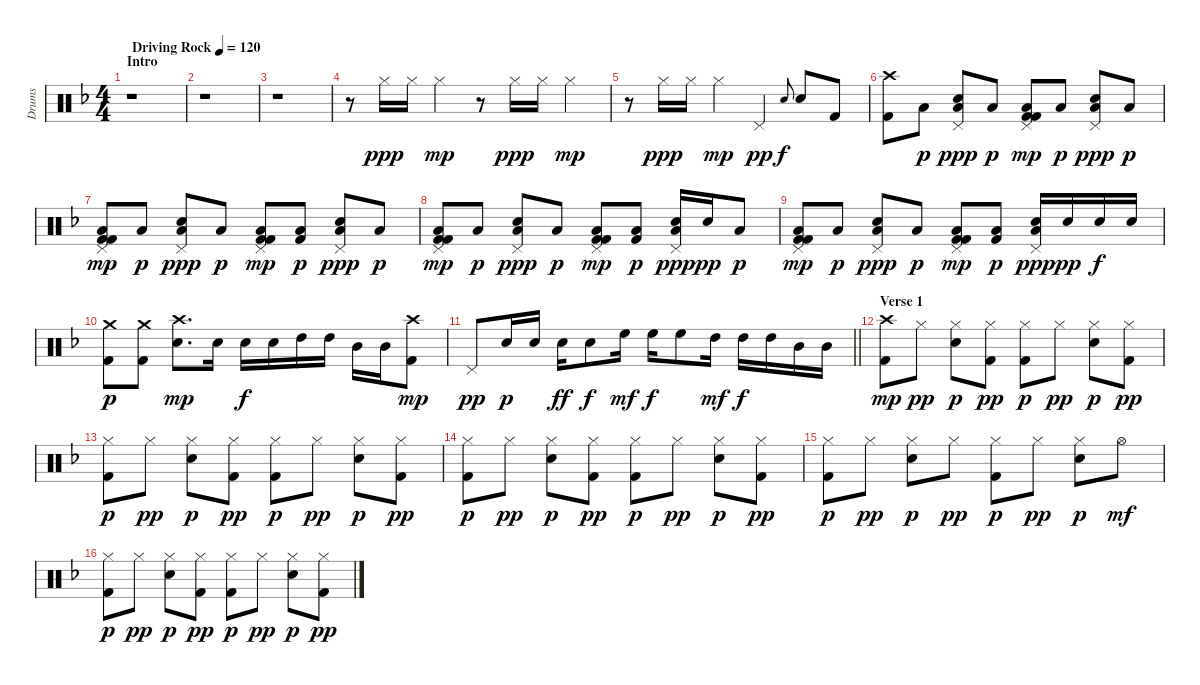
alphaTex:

\track ("Drums" "Drums") {instrument percussion}
\staff {score}
\articulation defaults
\ts (4 4)
\section ("" "Intro")
\tempo (120 "Driving Rock")
\clef neutral
\ks dminor
r.1{dy ppp} |
r.1 |
r.1 |
r.8 "Hi-Hat (closed)".16 "Hi-Hat (closed)".16 "Hi-Hat (closed)".4{dy mp} r.8 "Hi-Hat (closed)".16{dy ppp} "Hi-Hat (closed)".16 "Hi-Hat (closed)".4{dy mp} |
r.8 "Hi-Hat (closed)".16{dy ppp} "Hi-Hat (closed)".16 "Hi-Hat (closed)".4{dy mp} "Pedal Hi-Hat (hit)".4{dy pp} "Electric Snare (hit)".8{gr onbeat dy f} "Electric Snare (hit)".8 "Kick (hit) 2".8 |
("Kick (hit) 2" "Crash high (hit)").8 "Low Tom (hit)".8{dy p} ("Low Tom (hit)" "Electric Snare (hit)" "Pedal Hi-Hat (hit)").8{dy ppp} "Low Tom (hit)".8{dy p} ("Low Tom (hit)" "Kick (hit) 2" "Pedal Hi-Hat (hit)" "Kick (hit) 2").8{dy mp} "Low Tom (hit)".8{dy p} ("Low Tom (hit)" "Electric Snare (hit)" "Pedal Hi-Hat (hit)").8{dy ppp} "Low Tom (hit)".8{dy p} |
("Low Tom (hit)" "Kick (hit) 2" "Pedal Hi-Hat (hit)" "Kick (hit) 2").8{dy mp} "Low Tom (hit)".8{dy p} ("Low Tom (hit)" "Electric Snare (hit)" "Pedal Hi-Hat (hit)").8{dy ppp} "Low Tom (hit)".8{dy p} ("Low Tom (hit)" "Kick (hit) 2" "Pedal Hi-Hat (hit)" "Kick (hit) 2").8{dy mp} ("Low Tom (hit)" "Kick (hit) 2").8{dy p} ("Low Tom (hit)" "Electric Snare (hit)" "Pedal Hi-Hat (hit)").8{dy ppp} "Low Tom (hit)".8{dy p} |
("Low Tom (hit)" "Kick (hit) 2" "Pedal Hi-Hat (hit)" "Kick (hit) 2").8{dy mp} "Low Tom (hit)".8{dy p} ("Low Tom (hit)" "Electric Snare (hit)" "Pedal Hi-Hat (hit)").8{dy ppp} "Low Tom (hit)".8{dy p} ("Low Tom (hit)" "Kick (hit) 2" "Pedal Hi-Hat (hit)" "Kick (hit) 2").8{dy mp} ("Low Tom (hit)" "Kick (hit) 2").8{dy p} ("Low Tom (hit)" "Electric Snare (hit)" "Pedal Hi-Hat (hit)").16{dy ppp} "Electric Snare (hit)".16{dy pp} "Low Tom (hit)".8{dy p} |
("Low Tom (hit)" "Kick (hit) 2" "Pedal Hi-Hat (hit)" "Kick (hit) 2").8{dy mp} "Low Tom (hit)".8{dy p} ("Low Tom (hit)" "Electric Snare (hit)" "Pedal Hi-Hat (hit)").8{dy ppp} "Low Tom (hit)".8{dy p} ("Low Tom (hit)" "Kick (hit) 2" "Pedal Hi-Hat (hit)" "Kick (hit) 2").8{dy mp} ("Low Tom (hit)" "Kick (hit) 2").8{dy p} ("Low Tom (hit)" "Electric Snare (hit)" "Pedal Hi-Hat (hit)").16{dy ppp} "Electric Snare (hit)".16{dy pp} "Electric Snare (hit)".16{dy f} "Electric Snare (hit)".16 |
("Kick (hit) 2" "Crash medium (hit)").8{dy p} ("Kick (hit) 2" "Crash medium (hit)").8 ("Electric Snare (hit)" "Crash high (hit)").8{d dy mp} "Electric Snare (hit)".16 "Electric Snare (hit)".16{dy f} "Electric Snare (hit)".16 "High Tom (hit)".16 "High Tom (hit)".16 "Mid Tom (hit)".16 "Mid Tom (hit)".16 ("Kick (hit) 2" "Crash high (hit)").8{dy mp} |
\barLineRight lightlight "Pedal Hi-Hat (hit)".8{dy pp} "Electric Snare (hit)".16{dy p} "Electric Snare (hit)".16 "Electric Snare (hit)".16{dy ff} "Electric Snare (hit)".8{dy f} "High Floor Tom (hit)".16{dy mf} "High Floor Tom (hit)".16{dy f} "High Floor Tom (hit)".8 "High Tom (hit)".16{dy mf} "High Tom (hit)".16{dy f} "High Tom (hit)".16 "Mid Tom (hit)".16 "Mid Tom (hit)".16
|
\section ("" "Verse 1")
("Crash high (hit)" "Kick (hit) 2").8{dy mp} "Hi-Hat (closed)".8{dy pp} ("Hi-Hat (closed)" "Electric Snare (hit)").8{dy p} ("Hi-Hat (closed)" "Kick (hit) 2").8{dy pp} ("Hi-Hat (closed)" "Kick (hit) 2").8{dy p} "Hi-Hat (closed)".8{dy pp} ("Hi-Hat (closed)" "Electric Snare (hit)").8{dy p} ("Hi-Hat (closed)" "Kick (hit) 2").8{dy pp} |
("Hi-Hat (closed)" "Kick (hit) 2").8{dy p} "Hi-Hat (closed)".8{dy pp} ("Hi-Hat (closed)" "Electric Snare (hit)").8{dy p} ("Hi-Hat (closed)" "Kick (hit) 2").8{dy pp} ("Hi-Hat (closed)" "Kick (hit) 2").8{dy p} "Hi-Hat (closed)".8{dy pp} ("Hi-Hat (closed)" "Electric Snare (hit)").8{dy p} ("Hi-Hat (closed)" "Kick (hit) 2").8{dy pp} |
("Hi-Hat (closed)" "Kick (hit) 2").8{dy p} "Hi-Hat (closed)".8{dy pp} ("Hi-Hat (closed)" "Electric Snare (hit)").8{dy p} ("Hi-Hat (closed)" "Kick (hit) 2").8{dy pp} ("Hi-Hat (closed)" "Kick (hit) 2").8{dy p} "Hi-Hat (closed)".8{dy pp} ("Hi-Hat (closed)" "Electric Snare (hit)").8{dy p} ("Hi-Hat (closed)" "Kick (hit) 2").8{dy pp} |
("Hi-Hat (closed)" "Kick (hit) 2").8{dy p} "Hi-Hat (closed)".8{dy pp} ("Hi-Hat (closed)" "Electric Snare (hit)").8{dy p} "Hi-Hat (closed)".8{dy pp} ("Hi-Hat (closed)" "Kick (hit) 2").8{dy p} "Hi-Hat (closed)".8{dy pp} ("Hi-Hat (closed)" "Electric Snare (hit)").8{dy p} "Hi-Hat (open)".8{dy mf} |
("Hi-Hat (closed)" "Kick (hit) 2").8{dy p} "Hi-Hat (closed)".8{dy pp} ("Hi-Hat (closed)" "Electric Snare (hit)").8{dy p} ("Hi-Hat (closed)" "Kick (hit) 2").8{dy pp} ("Hi-Hat (closed)" "Kick (hit) 2").8{dy p} "Hi-Hat (closed)".8{dy pp} ("Hi-Hat (closed)" "Electric Snare (hit)").8{dy p} ("Hi-Hat (closed)" "Kick (hit) 2").8{dy pp}
